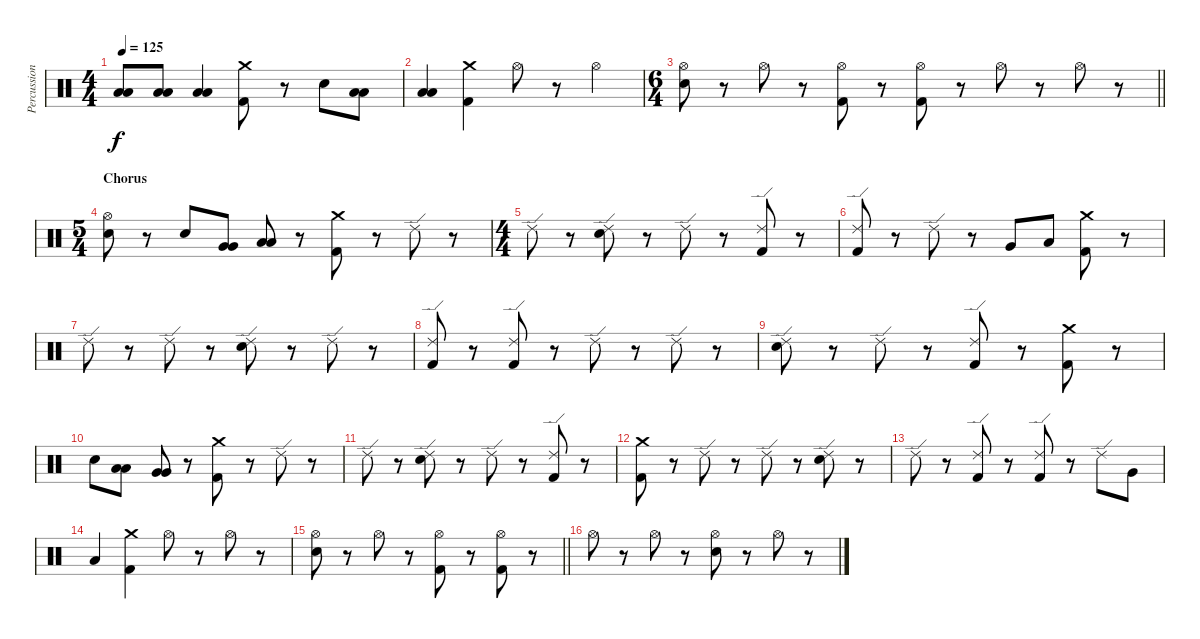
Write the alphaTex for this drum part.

\track ("Percussion" "Percussion") {instrument percussion}
\staff {score}
\articulation defaults
\ts (4 4)
\tempo 125
\clef neutral
\ks c
("Low Tom (hit)" "Low Tom (hit)").8{dy f} ("Low Floor Tom (hit)" "Low Floor Tom (hit)").8 ("Low Tom (hit)" "Low Tom (hit)").4 ("Crash medium (hit)" "Kick (hit) 2").8 r.8 "Electric Snare (hit)".8 ("Low Tom (hit)" "Low Tom (hit)").8 |
("Low Floor Tom (hit)" "Low Floor Tom (hit)").4 ("Crash medium (hit)" "Kick (hit) 2").4 "Hi-Hat (open)".8 r.8 "Hi-Hat (open)".4 |
\ts (6 4)
\barLineRight lightlight
("Hi-Hat (open)" "Electric Snare (hit)").8 r.8 "Hi-Hat (open)".8 r.8 ("Hi-Hat (open)" "Kick (hit) 2").8 r.8 ("Hi-Hat (open)" "Kick (hit) 2").8 r.8 "Hi-Hat (open)".8 r.8 "Hi-Hat (open)".8 r.8 |
\ts (5 4)
\section ("" "Chorus")
("Hi-Hat (open)" "Electric Snare (hit)").8 r.8 "Electric Snare (hit)".8 ("Very Low Tom (hit)" "Very Low Tom (hit)").8 ("Low Tom (hit)" "Low Tom (hit)").8 r.8 ("Crash medium (hit)" "Kick (hit) 2").8 r.8 "Ride (edge) 2".8 r.8 |
\ts (4 4)
"Ride (edge) 2".8 r.8 ("Ride (edge) 2" "Electric Snare (hit)").8 r.8 "Ride (edge) 2".8 r.8 ("Ride (edge) 2" "Kick (hit) 2").8 r.8 |
("Ride (edge) 2" "Kick (hit) 2").8 r.8 "Ride (edge) 2".8 r.8 "Very Low Tom (hit)".8 "Low Tom (hit)".8 ("Crash medium (hit)" "Kick (hit) 2").8 r.8 |
"Ride (edge) 2".8 r.8 "Ride (edge) 2".8 r.8 ("Ride (edge) 2" "Electric Snare (hit)").8 r.8 "Ride (edge) 2".8 r.8 |
("Ride (edge) 2" "Kick (hit) 2").8 r.8 ("Ride (edge) 2" "Kick (hit) 2").8 r.8 "Ride (edge) 2".8 r.8 "Ride (edge) 2".8 r.8 |
("Ride (edge) 2" "Electric Snare (hit)").8 r.8 "Ride (edge) 2".8 r.8 ("Ride (edge) 2" "Kick (hit) 2").8 r.8 ("Crash medium (hit)" "Kick (hit) 2").8 r.8 |
"Electric Snare (hit)".8 ("Low Tom (hit)" "Low Tom (hit)").8 ("Very Low Tom (hit)" "Very Low Tom (hit)").8 r.8 ("Crash medium (hit)" "Kick (hit) 2").8 r.8 "Ride (edge) 2".8 r.8 |
"Ride (edge) 2".8 r.8 ("Ride (edge) 2" "Electric Snare (hit)").8 r.8 "Ride (edge) 2".8 r.8 ("Ride (edge) 2" "Kick (hit) 2").8 r.8 |
("Crash medium (hit)" "Kick (hit) 2").8 r.8 "Ride (edge) 2".8 r.8 "Ride (edge) 2".8 r.8 ("Ride (edge) 2" "Electric Snare (hit)").8 r.8 |
"Ride (edge) 2".8 r.8 ("Ride (edge) 2" "Kick (hit) 2").8 r.8 ("Ride (edge) 2" "Kick (hit) 2").8 r.8 "Ride (edge) 2".8 "Very Low Tom (hit)".8 |
"Low Tom (hit)".4 ("Crash medium (hit)" "Kick (hit) 2").4 "Hi-Hat (open)".8 r.8 "Hi-Hat (open)".8 r.8 |
\barLineRight lightlight
("Hi-Hat (open)" "Electric Snare (hit)").8 r.8 "Hi-Hat (open)".8 r.8 ("Hi-Hat (open)" "Kick (hit) 2").8 r.8 ("Hi-Hat (open)" "Kick (hit) 2").8 r.8 |
"Hi-Hat (open)".8 r.8 "Hi-Hat (open)".8 r.8 ("Hi-Hat (open)" "Electric Snare (hit)").8 r.8 "Hi-Hat (open)".8 r.8
